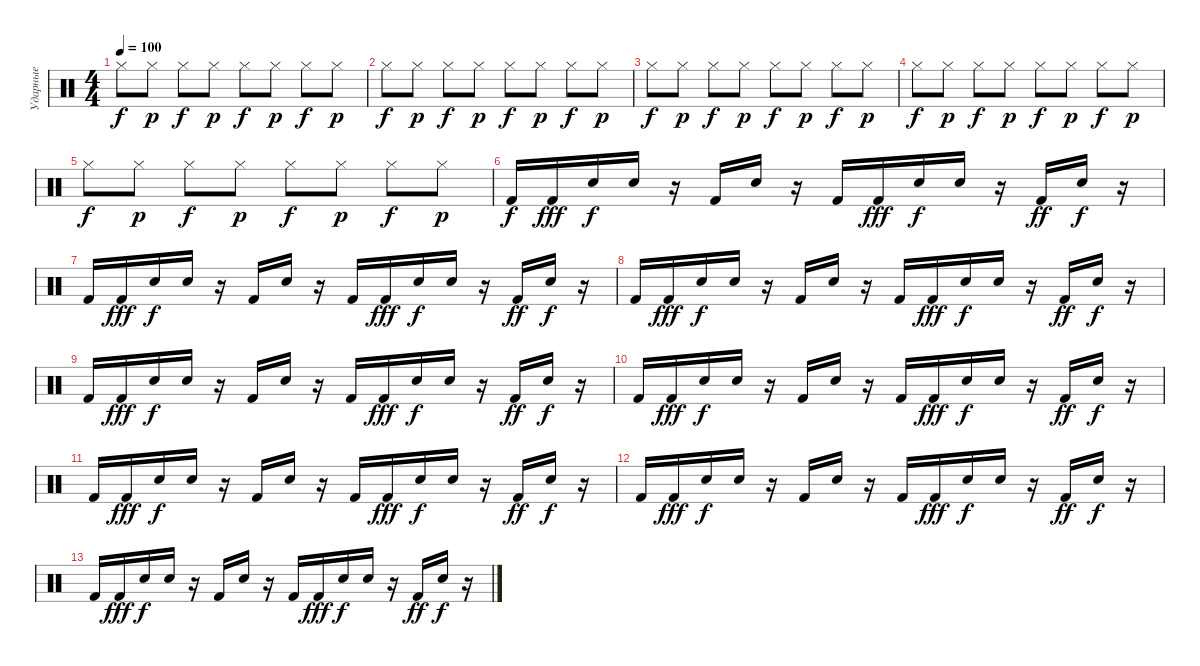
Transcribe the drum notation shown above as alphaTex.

\track ("Ударные" "Ударные") {instrument percussion}
\staff {score}
\articulation defaults
\ts (4 4)
\tempo 100
\clef neutral
\ks c "Hi-Hat (closed)".8{dy f} "Hi-Hat (closed)".8{dy p} "Hi-Hat (closed)".8{dy f} "Hi-Hat (closed)".8{dy p} "Hi-Hat (closed)".8{dy f} "Hi-Hat (closed)".8{dy p} "Hi-Hat (closed)".8{dy f} "Hi-Hat (closed)".8{dy p}
|
"Hi-Hat (closed)".8{dy f} "Hi-Hat (closed)".8{dy p} "Hi-Hat (closed)".8{dy f} "Hi-Hat (closed)".8{dy p} "Hi-Hat (closed)".8{dy f} "Hi-Hat (closed)".8{dy p} "Hi-Hat (closed)".8{dy f} "Hi-Hat (closed)".8{dy p} |
"Hi-Hat (closed)".8{dy f} "Hi-Hat (closed)".8{dy p} "Hi-Hat (closed)".8{dy f} "Hi-Hat (closed)".8{dy p} "Hi-Hat (closed)".8{dy f} "Hi-Hat (closed)".8{dy p} "Hi-Hat (closed)".8{dy f} "Hi-Hat (closed)".8{dy p} |
"Hi-Hat (closed)".8{dy f} "Hi-Hat (closed)".8{dy p} "Hi-Hat (closed)".8{dy f} "Hi-Hat (closed)".8{dy p} "Hi-Hat (closed)".8{dy f} "Hi-Hat (closed)".8{dy p} "Hi-Hat (closed)".8{dy f} "Hi-Hat (closed)".8{dy p} |
"Hi-Hat (closed)".8{dy f} "Hi-Hat (closed)".8{dy p} "Hi-Hat (closed)".8{dy f} "Hi-Hat (closed)".8{dy p} "Hi-Hat (closed)".8{dy f} "Hi-Hat (closed)".8{dy p} "Hi-Hat (closed)".8{dy f} "Hi-Hat (closed)".8{dy p} |
"Kick (hit) 2".16{dy f} "Kick (hit) 2".16{dy fff} "Hand Clap (hit)".16{dy f} "Hand Clap (hit)".16 r.16 "Kick (hit) 2".16 "Hand Clap (hit)".16 r.16 "Kick (hit) 2".16 "Kick (hit) 2".16{dy fff} "Snare (hit) 2".16{dy f} "Snare (hit) 2".16 r.16 "Kick (hit) 2".16{dy ff} "Snare (hit) 2".16{dy f} r.16 |
"Kick (hit) 2".16 "Kick (hit) 2".16{dy fff} "Hand Clap (hit)".16{dy f} "Hand Clap (hit)".16 r.16 "Kick (hit) 2".16 "Hand Clap (hit)".16 r.16 "Kick (hit) 2".16 "Kick (hit) 2".16{dy fff} "Snare (hit) 2".16{dy f} "Snare (hit) 2".16 r.16 "Kick (hit) 2".16{dy ff} "Snare (hit) 2".16{dy f} r.16 |
"Kick (hit) 2".16 "Kick (hit) 2".16{dy fff} "Hand Clap (hit)".16{dy f} "Hand Clap (hit)".16 r.16 "Kick (hit) 2".16 "Hand Clap (hit)".16 r.16 "Kick (hit) 2".16 "Kick (hit) 2".16{dy fff} "Snare (hit) 2".16{dy f} "Snare (hit) 2".16 r.16 "Kick (hit) 2".16{dy ff} "Snare (hit) 2".16{dy f} r.16 |
"Kick (hit) 2".16 "Kick (hit) 2".16{dy fff} "Hand Clap (hit)".16{dy f} "Hand Clap (hit)".16 r.16 "Kick (hit) 2".16 "Hand Clap (hit)".16 r.16 "Kick (hit) 2".16 "Kick (hit) 2".16{dy fff} "Snare (hit) 2".16{dy f} "Snare (hit) 2".16 r.16 "Kick (hit) 2".16{dy ff} "Snare (hit) 2".16{dy f} r.16 |
"Kick (hit) 2".16 "Kick (hit) 2".16{dy fff} "Hand Clap (hit)".16{dy f} "Hand Clap (hit)".16 r.16 "Kick (hit) 2".16 "Hand Clap (hit)".16 r.16 "Kick (hit) 2".16 "Kick (hit) 2".16{dy fff} "Snare (hit) 2".16{dy f} "Snare (hit) 2".16 r.16 "Kick (hit) 2".16{dy ff} "Snare (hit) 2".16{dy f} r.16 |
"Kick (hit) 2".16 "Kick (hit) 2".16{dy fff} "Hand Clap (hit)".16{dy f} "Hand Clap (hit)".16 r.16 "Kick (hit) 2".16 "Hand Clap (hit)".16 r.16 "Kick (hit) 2".16 "Kick (hit) 2".16{dy fff} "Snare (hit) 2".16{dy f} "Snare (hit) 2".16 r.16 "Kick (hit) 2".16{dy ff} "Snare (hit) 2".16{dy f} r.16 |
"Kick (hit) 2".16 "Kick (hit) 2".16{dy fff} "Hand Clap (hit)".16{dy f} "Hand Clap (hit)".16 r.16 "Kick (hit) 2".16 "Hand Clap (hit)".16 r.16 "Kick (hit) 2".16 "Kick (hit) 2".16{dy fff} "Snare (hit) 2".16{dy f} "Snare (hit) 2".16 r.16 "Kick (hit) 2".16{dy ff} "Snare (hit) 2".16{dy f} r.16 |
"Kick (hit) 2".16 "Kick (hit) 2".16{dy fff} "Hand Clap (hit)".16{dy f} "Hand Clap (hit)".16 r.16 "Kick (hit) 2".16 "Hand Clap (hit)".16 r.16 "Kick (hit) 2".16 "Kick (hit) 2".16{dy fff} "Snare (hit) 2".16{dy f} "Snare (hit) 2".16 r.16 "Kick (hit) 2".16{dy ff} "Snare (hit) 2".16{dy f} r.16
